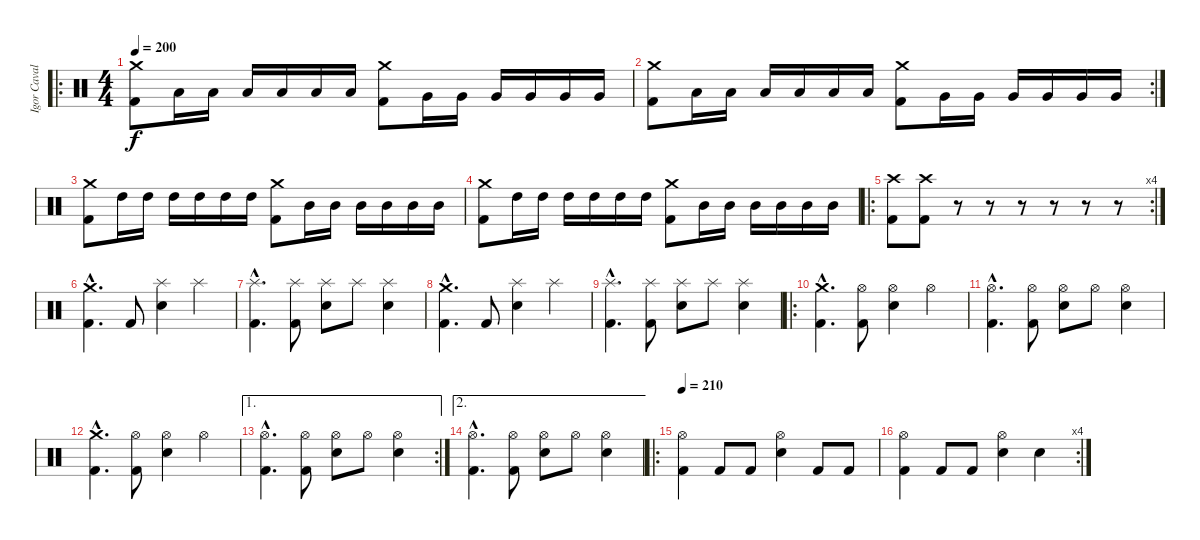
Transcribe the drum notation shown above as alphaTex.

\track ("Igor Cavalera" "Igor Caval") {instrument percussion}
\staff {score}
\articulation defaults
\ro
\ts (4 4)
\tempo 200
\clef neutral
\ks c
("Kick (hit) 2" "Crash medium (hit)").8{dy f} "Low Tom (hit)".16 "Low Tom (hit)".16 "Low Tom (hit)".16 "Low Tom (hit)".16 "Low Tom (hit)".16 "Low Tom (hit)".16 ("Kick (hit) 2" "Crash medium (hit)").8 "Very Low Tom (hit)".16 "Very Low Tom (hit)".16 "Very Low Tom (hit)".16 "Very Low Tom (hit)".16 "Very Low Tom (hit)".16 "Very Low Tom (hit)".16 |
\rc 2
("Kick (hit) 2" "Crash medium (hit)").8 "Low Tom (hit)".16 "Low Tom (hit)".16 "Low Tom (hit)".16 "Low Tom (hit)".16 "Low Tom (hit)".16 "Low Tom (hit)".16 ("Kick (hit) 2" "Crash medium (hit)").8 "Very Low Tom (hit)".16 "Very Low Tom (hit)".16 "Very Low Tom (hit)".16 "Very Low Tom (hit)".16 "Very Low Tom (hit)".16 "Very Low Tom (hit)".16 |
("Kick (hit) 2" "Crash medium (hit)").8 "High Tom (hit)".16 "High Tom (hit)".16 "High Tom (hit)".16 "High Tom (hit)".16 "High Tom (hit)".16 "High Tom (hit)".16 ("Kick (hit) 2" "Crash medium (hit)").8 "Mid Tom (hit)".16 "Mid Tom (hit)".16 "Mid Tom (hit)".16 "Mid Tom (hit)".16 "Mid Tom (hit)".16 "Mid Tom (hit)".16 |
("Kick (hit) 2" "Crash medium (hit)").8 "High Tom (hit)".16 "High Tom (hit)".16 "High Tom (hit)".16 "High Tom (hit)".16 "High Tom (hit)".16 "High Tom (hit)".16 ("Kick (hit) 2" "Crash medium (hit)").8 "Mid Tom (hit)".16 "Mid Tom (hit)".16 "Mid Tom (hit)".16 "Mid Tom (hit)".16 "Mid Tom (hit)".16 "Mid Tom (hit)".16 |
\ro
\rc 4
("Kick (hit) 2" "Crash high (hit)").8 ("Kick (hit) 2" "Crash high (hit)").8 r.8 r.8 r.8 r.8 r.8 r.8 |
("Kick (hit) 2"{hac} "Crash medium (hit)"{hac}).4{d} "Kick (hit) 2".8 ("Snare (hit) 2" "Splash (hit)").4 "Splash (hit)".4 |
("Kick (hit) 2"{hac} "Splash (hit)"{hac}).4{d} ("Kick (hit) 2" "Splash (hit)").8 ("Snare (hit) 2" "Splash (hit)").8 "Splash (hit)".8 ("Snare (hit) 2" "Splash (hit)").4 |
("Kick (hit) 2"{hac} "Crash medium (hit)"{hac}).4{d} "Kick (hit) 2".8 ("Snare (hit) 2" "Splash (hit)").4 "Splash (hit)".4 |
("Kick (hit) 2"{hac} "Splash (hit)"{hac}).4{d} ("Kick (hit) 2" "Splash (hit)").8 ("Snare (hit) 2" "Splash (hit)").8 "Splash (hit)".8 ("Snare (hit) 2" "Splash (hit)").4 |
\ro
("Kick (hit) 2"{hac} "Crash medium (hit)"{hac}).4{d} ("Kick (hit) 2" "Hi-Hat (open)").8 ("Snare (hit) 2" "Hi-Hat (open)").4 "Hi-Hat (open)".4 |
("Kick (hit) 2"{hac} "Hi-Hat (open)"{hac}).4{d} ("Kick (hit) 2" "Hi-Hat (open)").8 ("Snare (hit) 2" "Hi-Hat (open)").8 "Hi-Hat (open)".8 ("Snare (hit) 2" "Hi-Hat (open)").4 |
("Kick (hit) 2"{hac} "Crash medium (hit)"{hac}).4{d} ("Kick (hit) 2" "Hi-Hat (open)").8 ("Snare (hit) 2" "Hi-Hat (open)").4 "Hi-Hat (open)".4 |
\ae 1
\rc 2
("Kick (hit) 2"{hac} "Hi-Hat (open)"{hac}).4{d} ("Kick (hit) 2" "Hi-Hat (open)").8 ("Snare (hit) 2" "Hi-Hat (open)").8 "Hi-Hat (open)".8 ("Snare (hit) 2" "Hi-Hat (open)").4 |
\ae 2
("Kick (hit) 2"{hac} "Hi-Hat (open)"{hac}).4{d} ("Kick (hit) 2" "Hi-Hat (open)").8 ("Snare (hit) 2" "Hi-Hat (open)").8 "Hi-Hat (open)".8 ("Snare (hit) 2" "Hi-Hat (open)").4 |
\ro
\tempo 210
("Kick (hit) 2" "Hi-Hat (open)").4 "Kick (hit) 2".8 "Kick (hit) 2".8 ("Snare (hit) 2" "Hi-Hat (open)").4 "Kick (hit) 2".8 "Kick (hit) 2".8 |
\rc 4
("Kick (hit) 2" "Hi-Hat (open)").4 "Kick (hit) 2".8 "Kick (hit) 2".8 ("Snare (hit) 2" "Hi-Hat (open)").4 "Snare (hit) 2".4
